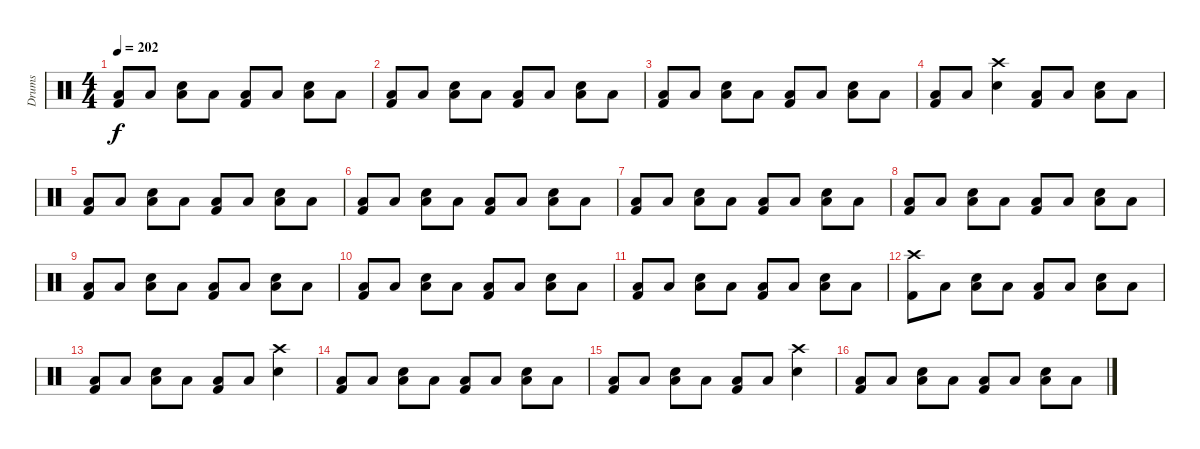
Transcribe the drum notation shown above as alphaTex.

\track ("Drums" "Drums") {instrument percussion}
\staff {score}
\articulation defaults
\ts (4 4)
\tempo 202
\clef neutral
\ks c
("Low Floor Tom (hit)" "Kick (hit) 2").8{dy f} "Low Floor Tom (hit)".8 ("Low Floor Tom (hit)" "Electric Snare (hit)").8 "Low Floor Tom (hit)".8 ("Low Floor Tom (hit)" "Kick (hit) 2").8 "Low Floor Tom (hit)".8 ("Low Floor Tom (hit)" "Electric Snare (hit)").8 "Low Floor Tom (hit)".8 |
("Low Floor Tom (hit)" "Kick (hit) 2").8 "Low Floor Tom (hit)".8 ("Low Floor Tom (hit)" "Electric Snare (hit)").8 "Low Floor Tom (hit)".8 ("Low Floor Tom (hit)" "Kick (hit) 2").8 "Low Floor Tom (hit)".8 ("Low Floor Tom (hit)" "Electric Snare (hit)").8 "Low Floor Tom (hit)".8 |
("Low Floor Tom (hit)" "Kick (hit) 2").8 "Low Floor Tom (hit)".8 ("Low Floor Tom (hit)" "Electric Snare (hit)").8 "Low Floor Tom (hit)".8 ("Low Floor Tom (hit)" "Kick (hit) 2").8 "Low Floor Tom (hit)".8 ("Low Floor Tom (hit)" "Electric Snare (hit)").8 "Low Floor Tom (hit)".8 |
("Low Floor Tom (hit)" "Kick (hit) 2").8 "Low Floor Tom (hit)".8 ("Crash high (hit)" "Electric Snare (hit)").4 ("Low Floor Tom (hit)" "Kick (hit) 2").8 "Low Floor Tom (hit)".8 ("Low Floor Tom (hit)" "Electric Snare (hit)").8 "Low Floor Tom (hit)".8 |
("Low Floor Tom (hit)" "Kick (hit) 2").8 "Low Floor Tom (hit)".8 ("Low Floor Tom (hit)" "Electric Snare (hit)").8 "Low Floor Tom (hit)".8 ("Low Floor Tom (hit)" "Kick (hit) 2").8 "Low Floor Tom (hit)".8 ("Low Floor Tom (hit)" "Electric Snare (hit)").8 "Low Floor Tom (hit)".8 |
("Low Floor Tom (hit)" "Kick (hit) 2").8 "Low Floor Tom (hit)".8 ("Low Floor Tom (hit)" "Electric Snare (hit)").8 "Low Floor Tom (hit)".8 ("Low Floor Tom (hit)" "Kick (hit) 2").8 "Low Floor Tom (hit)".8 ("Low Floor Tom (hit)" "Electric Snare (hit)").8 "Low Floor Tom (hit)".8 |
("Low Floor Tom (hit)" "Kick (hit) 2").8 "Low Floor Tom (hit)".8 ("Low Floor Tom (hit)" "Electric Snare (hit)").8 "Low Floor Tom (hit)".8 ("Low Floor Tom (hit)" "Kick (hit) 2").8 "Low Floor Tom (hit)".8 ("Low Floor Tom (hit)" "Electric Snare (hit)").8 "Low Floor Tom (hit)".8 |
("Low Floor Tom (hit)" "Kick (hit) 2").8 "Low Floor Tom (hit)".8 ("Low Floor Tom (hit)" "Electric Snare (hit)").8 "Low Floor Tom (hit)".8 ("Low Floor Tom (hit)" "Kick (hit) 2").8 "Low Floor Tom (hit)".8 ("Low Floor Tom (hit)" "Electric Snare (hit)").8 "Low Floor Tom (hit)".8 |
("Low Floor Tom (hit)" "Kick (hit) 2").8 "Low Floor Tom (hit)".8 ("Low Floor Tom (hit)" "Electric Snare (hit)").8 "Low Floor Tom (hit)".8 ("Low Floor Tom (hit)" "Kick (hit) 2").8 "Low Floor Tom (hit)".8 ("Low Floor Tom (hit)" "Electric Snare (hit)").8 "Low Floor Tom (hit)".8 |
("Low Floor Tom (hit)" "Kick (hit) 2").8 "Low Floor Tom (hit)".8 ("Low Floor Tom (hit)" "Electric Snare (hit)").8 "Low Floor Tom (hit)".8 ("Low Floor Tom (hit)" "Kick (hit) 2").8 "Low Floor Tom (hit)".8 ("Low Floor Tom (hit)" "Electric Snare (hit)").8 "Low Floor Tom (hit)".8 |
("Low Floor Tom (hit)" "Kick (hit) 2").8 "Low Floor Tom (hit)".8 ("Low Floor Tom (hit)" "Electric Snare (hit)").8 "Low Floor Tom (hit)".8 ("Low Floor Tom (hit)" "Kick (hit) 2").8 "Low Floor Tom (hit)".8 ("Low Floor Tom (hit)" "Electric Snare (hit)").8 "Low Floor Tom (hit)".8 |
("Crash high (hit)" "Kick (hit) 2").8 "Low Floor Tom (hit)".8 ("Low Floor Tom (hit)" "Electric Snare (hit)").8 "Low Floor Tom (hit)".8 ("Low Floor Tom (hit)" "Kick (hit) 2").8 "Low Floor Tom (hit)".8 ("Low Floor Tom (hit)" "Electric Snare (hit)").8 "Low Floor Tom (hit)".8 |
("Low Floor Tom (hit)" "Kick (hit) 2").8 "Low Floor Tom (hit)".8 ("Low Floor Tom (hit)" "Electric Snare (hit)").8 "Low Floor Tom (hit)".8 ("Low Floor Tom (hit)" "Kick (hit) 2").8 "Low Floor Tom (hit)".8 ("Crash high (hit)" "Electric Snare (hit)").4 |
("Low Floor Tom (hit)" "Kick (hit) 2").8 "Low Floor Tom (hit)".8 ("Low Floor Tom (hit)" "Electric Snare (hit)").8 "Low Floor Tom (hit)".8 ("Low Floor Tom (hit)" "Kick (hit) 2").8 "Low Floor Tom (hit)".8 ("Low Floor Tom (hit)" "Electric Snare (hit)").8 "Low Floor Tom (hit)".8 |
("Low Floor Tom (hit)" "Kick (hit) 2").8 "Low Floor Tom (hit)".8 ("Low Floor Tom (hit)" "Electric Snare (hit)").8 "Low Floor Tom (hit)".8 ("Low Floor Tom (hit)" "Kick (hit) 2").8 "Low Floor Tom (hit)".8 ("Crash high (hit)" "Electric Snare (hit)").4 |
("Low Floor Tom (hit)" "Kick (hit) 2").8 "Low Floor Tom (hit)".8 ("Low Floor Tom (hit)" "Electric Snare (hit)").8 "Low Floor Tom (hit)".8 ("Low Floor Tom (hit)" "Kick (hit) 2").8 "Low Floor Tom (hit)".8 ("Low Floor Tom (hit)" "Electric Snare (hit)").8 "Low Floor Tom (hit)".8
